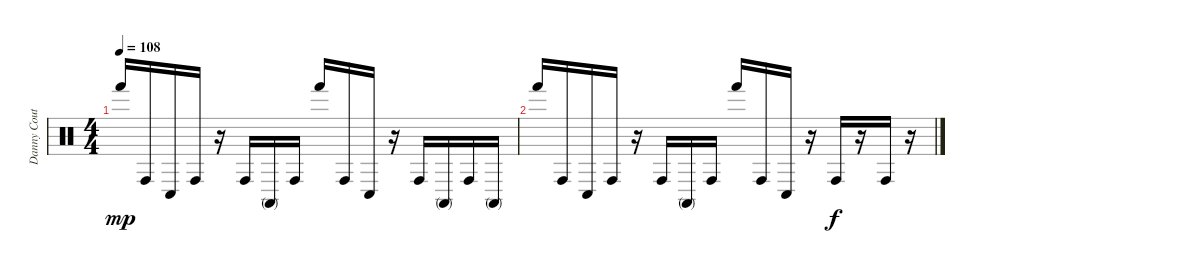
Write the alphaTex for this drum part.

\track ("Danny Couto [Percussion]" "Danny Cout") {instrument percussion}
\staff {score}
\articulation defaults
\ts (4 4)
\tempo 108
\clef neutral
\ks c "Hand (hit)".16{dy mp} "Conga high (hit)".16 "Conga low (hit)".16 "Conga high (hit)".16
r.16 "Conga high (hit)".16 "Conga high (mute)".16 "Conga high (hit)".16 "Hand (hit)".16 "Conga high (hit)".16 "Conga low (hit)".16 r.16 "Conga high (hit)".16 "Conga high (mute)".16 "Conga high (hit)".16 "Conga high (mute)".16 |
"Hand (hit)".16 "Conga high (hit)".16 "Conga low (hit)".16 "Conga high (hit)".16 r.16 "Conga high (hit)".16 "Conga high (mute)".16 "Conga high (hit)".16 "Hand (hit)".16 "Conga high (hit)".16 "Conga low (hit)".16 r.16 "Conga high (hit)".16{dy f} r.16 "Conga high (hit)".16 r.16
